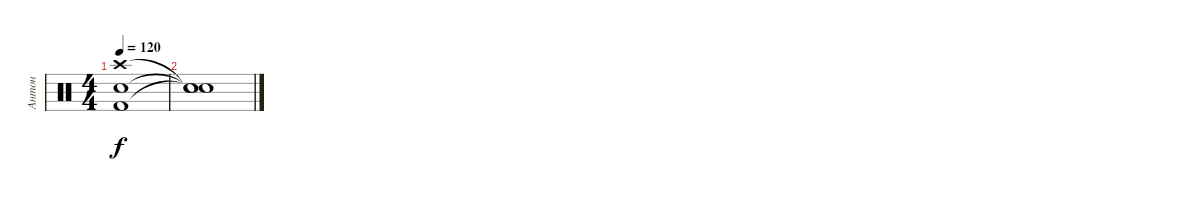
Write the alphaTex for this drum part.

\track ("Антон" "Антон") {instrument percussion}
\staff {score}
\articulation defaults
\ts (4 4)
\tempo 120
\clef neutral
\ks c
("Crash high (hit)" "Electric Snare (hit)" "Kick (hit) 2").1{dy f} |
("Snare (hit)"{t} "Snare (hit)"{t} "Snare (hit)"{t}).1
